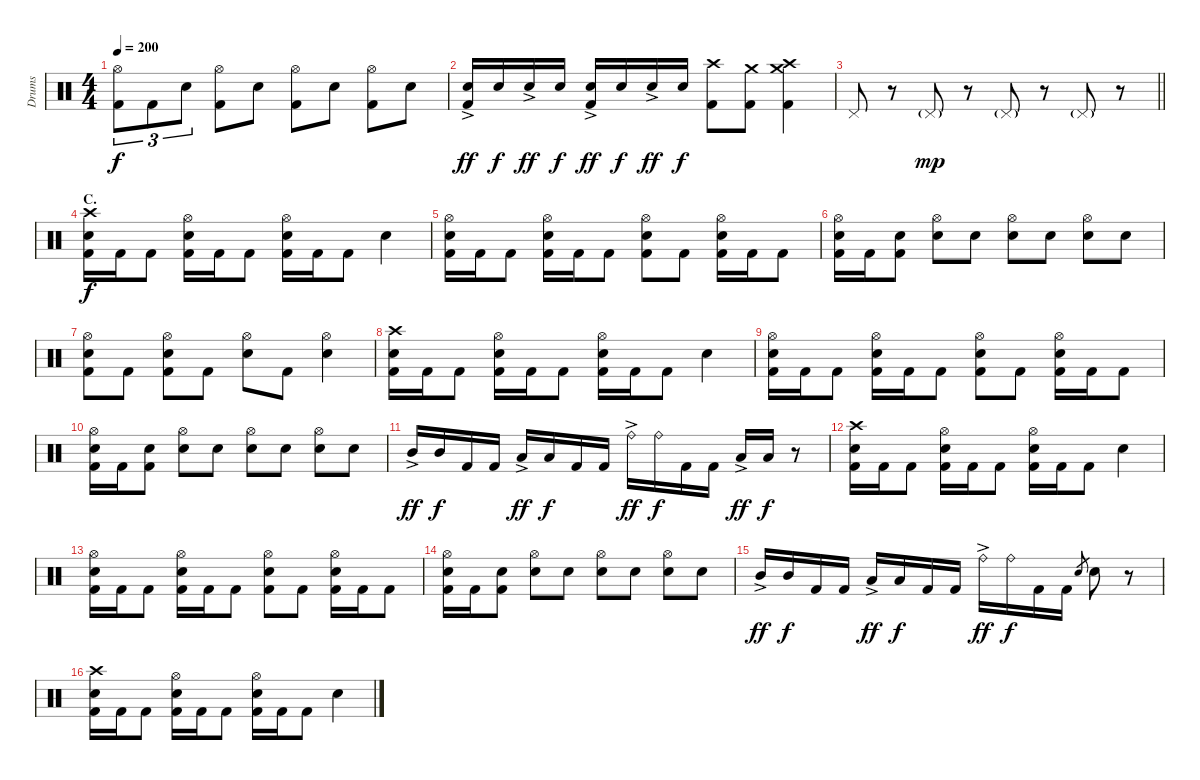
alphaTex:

\track ("Drums" "Drums") {instrument percussion}
\staff {score}
\articulation defaults
\ts (4 4)
\tempo 200
\clef neutral
\ks c
("Hi-Hat (open)" "Kick (hit) 2").8{tu (3 2) dy f} "Kick (hit) 2".8{tu (3 2)} "Electric Snare (hit)".8{tu (3 2)} ("Hi-Hat (open)" "Kick (hit) 2").8 "Electric Snare (hit)".8 ("Hi-Hat (open)" "Kick (hit) 2").8 "Electric Snare (hit)".8 ("Hi-Hat (open)" "Kick (hit) 2").8 "Electric Snare (hit)".8 |
("Electric Snare (hit)"{ac} "Kick (hit) 2").16{dy ff} "Electric Snare (hit)".16{dy f} "Electric Snare (hit)"{ac}.16{dy ff} "Electric Snare (hit)".16{dy f} ("Electric Snare (hit)"{ac} "Kick (hit) 2").16{dy ff} "Electric Snare (hit)".16{dy f} "Electric Snare (hit)"{ac}.16{dy ff} "Electric Snare (hit)".16{dy f} ("Crash high (hit)" "Kick (hit) 2").8 ("Crash medium (hit)" "Kick (hit) 2").8 ("Crash medium (hit)" "Crash high (hit)" "Kick (hit) 2").4 |
\barLineRight lightlight "Pedal Hi-Hat (hit)".8
r.8 "Pedal Hi-Hat (hit)"{g}.8{dy mp} r.8 "Pedal Hi-Hat (hit)"{g}.8 r.8 "Pedal Hi-Hat (hit)"{g}.8 r.8 |
\section ("" "C.")
("Crash high (hit)" "Electric Snare (hit)" "Kick (hit) 2").16{dy f} "Kick (hit) 2".16 "Kick (hit) 2".8 ("Hi-Hat (open)" "Electric Snare (hit)" "Kick (hit) 2").16 "Kick (hit) 2".16 "Kick (hit) 2".8 ("Hi-Hat (open)" "Electric Snare (hit)" "Kick (hit) 2").16 "Kick (hit) 2".16 "Kick (hit) 2".8 "Electric Snare (hit)".4 |
("Hi-Hat (open)" "Electric Snare (hit)" "Kick (hit) 2").16 "Kick (hit) 2".16 "Kick (hit) 2".8 ("Hi-Hat (open)" "Electric Snare (hit)" "Kick (hit) 2").16 "Kick (hit) 2".16 "Kick (hit) 2".8 ("Hi-Hat (open)" "Electric Snare (hit)" "Kick (hit) 2").8 "Kick (hit) 2".8 ("Hi-Hat (open)" "Electric Snare (hit)" "Kick (hit) 2").16 "Kick (hit) 2".16 "Kick (hit) 2".8 |
("Hi-Hat (open)" "Electric Snare (hit)" "Kick (hit) 2").16 "Kick (hit) 2".16 ("Electric Snare (hit)" "Kick (hit) 2").8 ("Hi-Hat (open)" "Electric Snare (hit)").8 "Electric Snare (hit)".8 ("Hi-Hat (open)" "Electric Snare (hit)").8 "Electric Snare (hit)".8 ("Hi-Hat (open)" "Electric Snare (hit)").8 "Electric Snare (hit)".8 |
("Hi-Hat (open)" "Electric Snare (hit)" "Kick (hit) 2").8 "Kick (hit) 2".8 ("Hi-Hat (open)" "Electric Snare (hit)" "Kick (hit) 2").8 "Kick (hit) 2".8 ("Hi-Hat (open)" "Electric Snare (hit)").8 "Kick (hit) 2".8 ("Hi-Hat (open)" "Electric Snare (hit)").4 |
("Crash high (hit)" "Electric Snare (hit)" "Kick (hit) 2").16 "Kick (hit) 2".16 "Kick (hit) 2".8 ("Hi-Hat (open)" "Electric Snare (hit)" "Kick (hit) 2").16 "Kick (hit) 2".16 "Kick (hit) 2".8 ("Hi-Hat (open)" "Electric Snare (hit)" "Kick (hit) 2").16 "Kick (hit) 2".16 "Kick (hit) 2".8 "Electric Snare (hit)".4 |
("Hi-Hat (open)" "Electric Snare (hit)" "Kick (hit) 2").16 "Kick (hit) 2".16 "Kick (hit) 2".8 ("Hi-Hat (open)" "Electric Snare (hit)" "Kick (hit) 2").16 "Kick (hit) 2".16 "Kick (hit) 2".8 ("Hi-Hat (open)" "Electric Snare (hit)" "Kick (hit) 2").8 "Kick (hit) 2".8 ("Hi-Hat (open)" "Electric Snare (hit)" "Kick (hit) 2").16 "Kick (hit) 2".16 "Kick (hit) 2".8 |
("Hi-Hat (open)" "Electric Snare (hit)" "Kick (hit) 2").16 "Kick (hit) 2".16 ("Electric Snare (hit)" "Kick (hit) 2").8 ("Hi-Hat (open)" "Electric Snare (hit)").8 "Electric Snare (hit)".8 ("Hi-Hat (open)" "Electric Snare (hit)").8 "Electric Snare (hit)".8 ("Hi-Hat (open)" "Electric Snare (hit)").8 "Electric Snare (hit)".8 |
"Mid Tom (hit)"{ac}.16{dy ff} "Mid Tom (hit)".16{dy f} "Kick (hit) 2".16 "Kick (hit) 2".16 "Low Tom (hit)"{ac}.16{dy ff} "Low Tom (hit)".16{dy f} "Kick (hit) 2".16 "Kick (hit) 2".16 "Ride (bell)"{ac}.16{dy ff} "Ride (bell)".16{dy f} "Kick (hit) 2".16 "Kick (hit) 2".16 "Low Floor Tom (hit)"{ac}.16{dy ff} "Low Floor Tom (hit)".16{dy f} r.8 |
("Crash high (hit)" "Electric Snare (hit)" "Kick (hit) 2").16 "Kick (hit) 2".16 "Kick (hit) 2".8 ("Hi-Hat (open)" "Electric Snare (hit)" "Kick (hit) 2").16 "Kick (hit) 2".16 "Kick (hit) 2".8 ("Hi-Hat (open)" "Electric Snare (hit)" "Kick (hit) 2").16 "Kick (hit) 2".16 "Kick (hit) 2".8 "Electric Snare (hit)".4 |
("Hi-Hat (open)" "Electric Snare (hit)" "Kick (hit) 2").16 "Kick (hit) 2".16 "Kick (hit) 2".8 ("Hi-Hat (open)" "Electric Snare (hit)" "Kick (hit) 2").16 "Kick (hit) 2".16 "Kick (hit) 2".8 ("Hi-Hat (open)" "Electric Snare (hit)" "Kick (hit) 2").8 "Kick (hit) 2".8 ("Hi-Hat (open)" "Electric Snare (hit)" "Kick (hit) 2").16 "Kick (hit) 2".16 "Kick (hit) 2".8 |
("Hi-Hat (open)" "Electric Snare (hit)" "Kick (hit) 2").16 "Kick (hit) 2".16 ("Electric Snare (hit)" "Kick (hit) 2").8 ("Hi-Hat (open)" "Electric Snare (hit)").8 "Electric Snare (hit)".8 ("Hi-Hat (open)" "Electric Snare (hit)").8 "Electric Snare (hit)".8 ("Hi-Hat (open)" "Electric Snare (hit)").8 "Electric Snare (hit)".8 |
"Mid Tom (hit)"{ac}.16{dy ff} "Mid Tom (hit)".16{dy f} "Kick (hit) 2".16 "Kick (hit) 2".16 "Low Tom (hit)"{ac}.16{dy ff} "Low Tom (hit)".16{dy f} "Kick (hit) 2".16 "Kick (hit) 2".16 "Ride (bell)"{ac}.16{dy ff} "Ride (bell)".16{dy f} "Kick (hit) 2".16 "Kick (hit) 2".16 "Electric Snare (hit)".8{gr} "Electric Snare (hit)".8 r.8 |
("Crash high (hit)" "Electric Snare (hit)" "Kick (hit) 2").16 "Kick (hit) 2".16 "Kick (hit) 2".8 ("Hi-Hat (open)" "Electric Snare (hit)" "Kick (hit) 2").16 "Kick (hit) 2".16 "Kick (hit) 2".8 ("Hi-Hat (open)" "Electric Snare (hit)" "Kick (hit) 2").16 "Kick (hit) 2".16 "Kick (hit) 2".8 "Electric Snare (hit)".4
